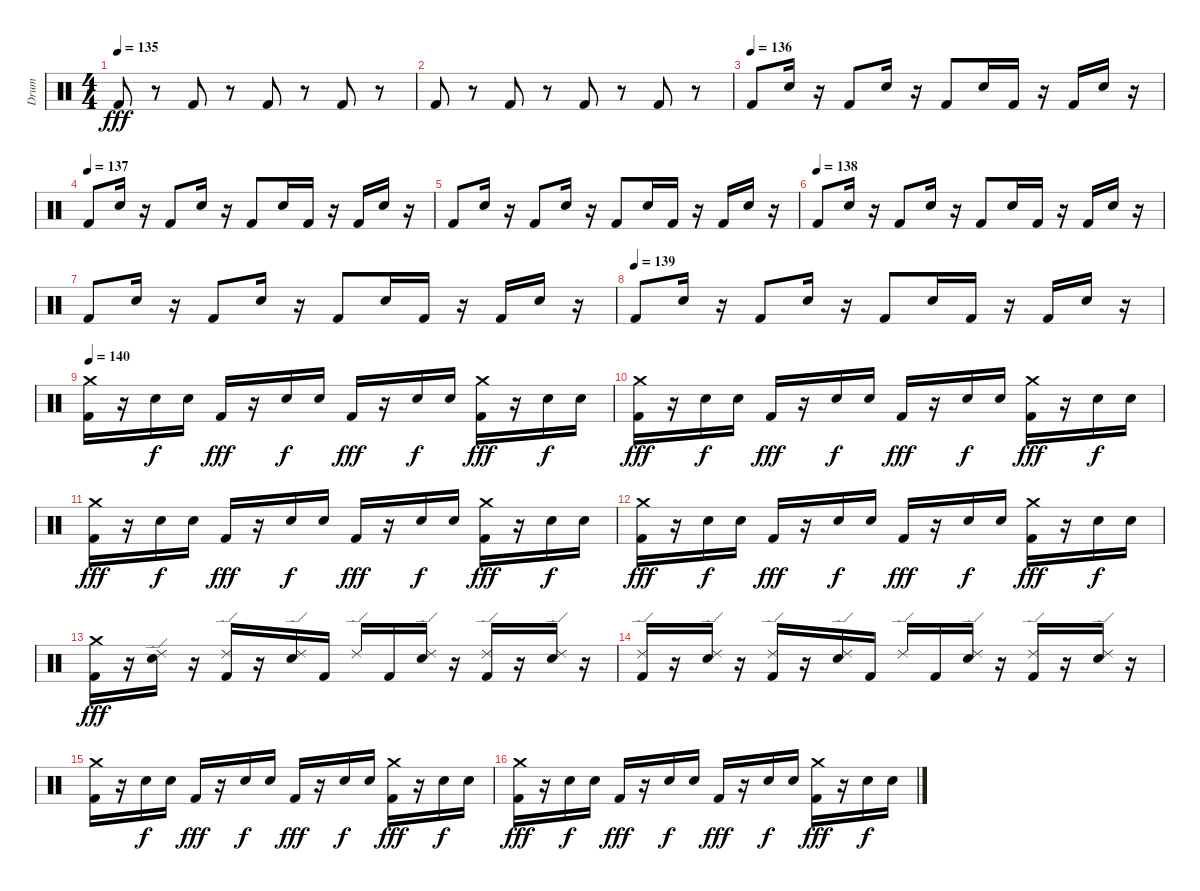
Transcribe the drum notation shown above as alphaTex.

\track ("Drum" "Drum") {instrument percussion}
\staff {score}
\articulation defaults
\ts (4 4)
\tempo 135
\clef neutral
\ks c "Kick (hit) 2".8{dy fff}
r.8 "Kick (hit) 2".8 r.8 "Kick (hit) 2".8 r.8 "Kick (hit) 2".8 r.8 |
"Kick (hit) 2".8 r.8 "Kick (hit) 2".8 r.8 "Kick (hit) 2".8 r.8 "Kick (hit) 2".8 r.8 |
\tempo (136)
"Kick (hit) 2".8 "Snare (hit) 2".16 r.16 "Kick (hit) 2".8 "Snare (hit) 2".16 r.16 "Kick (hit) 2".8 "Snare (hit) 2".16 "Kick (hit) 2".16 r.16 "Kick (hit) 2".16 "Snare (hit) 2".16 r.16 |
\tempo (137)
"Kick (hit) 2".8 "Snare (hit) 2".16 r.16 "Kick (hit) 2".8 "Snare (hit) 2".16 r.16 "Kick (hit) 2".8 "Snare (hit) 2".16 "Kick (hit) 2".16 r.16 "Kick (hit) 2".16 "Snare (hit) 2".16 r.16 |
"Kick (hit) 2".8 "Snare (hit) 2".16 r.16 "Kick (hit) 2".8 "Snare (hit) 2".16 r.16 "Kick (hit) 2".8 "Snare (hit) 2".16 "Kick (hit) 2".16 r.16 "Kick (hit) 2".16 "Snare (hit) 2".16 r.16 |
\tempo (138)
"Kick (hit) 2".8 "Snare (hit) 2".16 r.16 "Kick (hit) 2".8 "Snare (hit) 2".16 r.16 "Kick (hit) 2".8 "Snare (hit) 2".16 "Kick (hit) 2".16 r.16 "Kick (hit) 2".16 "Snare (hit) 2".16 r.16 |
"Kick (hit) 2".8 "Snare (hit) 2".16 r.16 "Kick (hit) 2".8 "Snare (hit) 2".16 r.16 "Kick (hit) 2".8 "Snare (hit) 2".16 "Kick (hit) 2".16 r.16 "Kick (hit) 2".16 "Snare (hit) 2".16 r.16 |
\tempo (139)
"Kick (hit) 2".8 "Snare (hit) 2".16 r.16 "Kick (hit) 2".8 "Snare (hit) 2".16 r.16 "Kick (hit) 2".8 "Snare (hit) 2".16 "Kick (hit) 2".16 r.16 "Kick (hit) 2".16 "Snare (hit) 2".16 r.16 |
\tempo 140
("Kick (hit) 2" "Crash medium (hit)").16 r.16 "Snare (hit) 2".16{dy f} "Snare (hit) 2".16 "Kick (hit) 2".16{dy fff} r.16 "Snare (hit) 2".16{dy f} "Snare (hit) 2".16 "Kick (hit) 2".16{dy fff} r.16 "Snare (hit) 2".16{dy f} "Snare (hit) 2".16 ("Kick (hit) 2" "Crash medium (hit)").16{dy fff} r.16 "Snare (hit) 2".16{dy f} "Snare (hit) 2".16 |
("Kick (hit) 2" "Crash medium (hit)").16{dy fff} r.16 "Snare (hit) 2".16{dy f} "Snare (hit) 2".16 "Kick (hit) 2".16{dy fff} r.16 "Snare (hit) 2".16{dy f} "Snare (hit) 2".16 "Kick (hit) 2".16{dy fff} r.16 "Snare (hit) 2".16{dy f} "Snare (hit) 2".16 ("Kick (hit) 2" "Crash medium (hit)").16{dy fff} r.16 "Snare (hit) 2".16{dy f} "Snare (hit) 2".16 |
("Kick (hit) 2" "Crash medium (hit)").16{dy fff} r.16 "Snare (hit) 2".16{dy f} "Snare (hit) 2".16 "Kick (hit) 2".16{dy fff} r.16 "Snare (hit) 2".16{dy f} "Snare (hit) 2".16 "Kick (hit) 2".16{dy fff} r.16 "Snare (hit) 2".16{dy f} "Snare (hit) 2".16 ("Kick (hit) 2" "Crash medium (hit)").16{dy fff} r.16 "Snare (hit) 2".16{dy f} "Snare (hit) 2".16 |
("Kick (hit) 2" "Crash medium (hit)").16{dy fff} r.16 "Snare (hit) 2".16{dy f} "Snare (hit) 2".16 "Kick (hit) 2".16{dy fff} r.16 "Snare (hit) 2".16{dy f} "Snare (hit) 2".16 "Kick (hit) 2".16{dy fff} r.16 "Snare (hit) 2".16{dy f} "Snare (hit) 2".16 ("Kick (hit) 2" "Crash medium (hit)").16{dy fff} r.16 "Snare (hit) 2".16{dy f} "Snare (hit) 2".16 |
("Kick (hit) 2" "Crash medium (hit)").16{dy fff} r.16 ("Snare (hit) 2" "Ride (edge) 2").16 r.16 ("Kick (hit) 2" "Ride (edge) 2").16 r.16 ("Snare (hit) 2" "Ride (edge) 2").16 "Kick (hit) 2".16 "Ride (edge) 2".16 "Kick (hit) 2".16 ("Snare (hit) 2" "Ride (edge) 2").16 r.16 ("Kick (hit) 2" "Ride (edge) 2").16 r.16 ("Snare (hit) 2" "Ride (edge) 2").16 r.16 |
("Kick (hit) 2" "Ride (edge) 2").16 r.16 ("Snare (hit) 2" "Ride (edge) 2").16 r.16 ("Kick (hit) 2" "Ride (edge) 2").16 r.16 ("Snare (hit) 2" "Ride (edge) 2").16 "Kick (hit) 2".16 "Ride (edge) 2".16 "Kick (hit) 2".16 ("Snare (hit) 2" "Ride (edge) 2").16 r.16 ("Kick (hit) 2" "Ride (edge) 2").16 r.16 ("Snare (hit) 2" "Ride (edge) 2").16 r.16 |
("Kick (hit) 2" "Crash medium (hit)").16 r.16 "Snare (hit) 2".16{dy f} "Snare (hit) 2".16 "Kick (hit) 2".16{dy fff} r.16 "Snare (hit) 2".16{dy f} "Snare (hit) 2".16 "Kick (hit) 2".16{dy fff} r.16 "Snare (hit) 2".16{dy f} "Snare (hit) 2".16 ("Kick (hit) 2" "Crash medium (hit)").16{dy fff} r.16 "Snare (hit) 2".16{dy f} "Snare (hit) 2".16 |
("Kick (hit) 2" "Crash medium (hit)").16{dy fff} r.16 "Snare (hit) 2".16{dy f} "Snare (hit) 2".16 "Kick (hit) 2".16{dy fff} r.16 "Snare (hit) 2".16{dy f} "Snare (hit) 2".16 "Kick (hit) 2".16{dy fff} r.16 "Snare (hit) 2".16{dy f} "Snare (hit) 2".16 ("Kick (hit) 2" "Crash medium (hit)").16{dy fff} r.16 "Snare (hit) 2".16{dy f} "Snare (hit) 2".16
